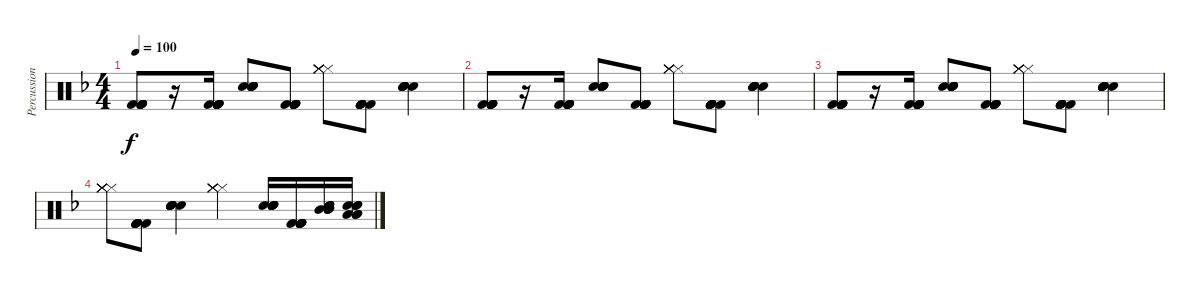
\track ("Percussion" "Percussion") {instrument percussion}
\staff {score}
\articulation defaults
\ts (4 4)
\tempo 100
\clef neutral
\ks dminor
("Kick (hit) 2" "Kick (hit) 2" "Kick (hit) 2" "Kick (hit) 2" "Kick (hit) 2" "Kick (hit) 2").8{dy f} r.16 ("Kick (hit) 2" "Kick (hit) 2" "Kick (hit) 2" "Kick (hit) 2" "Kick (hit) 2" "Kick (hit) 2").16 ("Electric Snare (hit)" "Electric Snare (hit)" "Electric Snare (hit)" "Electric Snare (hit)" "Electric Snare (hit)" "Electric Snare (hit)").8 ("Kick (hit) 2" "Kick (hit) 2" "Kick (hit) 2" "Kick (hit) 2" "Kick (hit) 2" "Kick (hit) 2").8 ("Hi-Hat (closed)" "Hi-Hat (closed)" "Hi-Hat (closed)" "Hi-Hat (closed)" "Hi-Hat (closed)" "Hi-Hat (closed)").8 ("Kick (hit) 2" "Kick (hit) 2" "Kick (hit) 2" "Kick (hit) 2" "Kick (hit) 2" "Kick (hit) 2").8 ("Electric Snare (hit)" "Electric Snare (hit)" "Electric Snare (hit)" "Electric Snare (hit)" "Electric Snare (hit)" "Electric Snare (hit)").4 |
("Kick (hit) 2" "Kick (hit) 2" "Kick (hit) 2" "Kick (hit) 2" "Kick (hit) 2" "Kick (hit) 2").8 r.16 ("Kick (hit) 2" "Kick (hit) 2" "Kick (hit) 2" "Kick (hit) 2" "Kick (hit) 2" "Kick (hit) 2").16 ("Electric Snare (hit)" "Electric Snare (hit)" "Electric Snare (hit)" "Electric Snare (hit)" "Electric Snare (hit)" "Electric Snare (hit)").8 ("Kick (hit) 2" "Kick (hit) 2" "Kick (hit) 2" "Kick (hit) 2" "Kick (hit) 2" "Kick (hit) 2").8 ("Hi-Hat (closed)" "Hi-Hat (closed)" "Hi-Hat (closed)" "Hi-Hat (closed)" "Hi-Hat (closed)" "Hi-Hat (closed)").8 ("Kick (hit) 2" "Kick (hit) 2" "Kick (hit) 2" "Kick (hit) 2" "Kick (hit) 2" "Kick (hit) 2").8 ("Electric Snare (hit)" "Electric Snare (hit)" "Electric Snare (hit)" "Electric Snare (hit)" "Electric Snare (hit)" "Electric Snare (hit)").4 |
("Kick (hit) 2" "Kick (hit) 2" "Kick (hit) 2" "Kick (hit) 2" "Kick (hit) 2" "Kick (hit) 2").8 r.16 ("Kick (hit) 2" "Kick (hit) 2" "Kick (hit) 2" "Kick (hit) 2" "Kick (hit) 2" "Kick (hit) 2").16 ("Electric Snare (hit)" "Electric Snare (hit)" "Electric Snare (hit)" "Electric Snare (hit)" "Electric Snare (hit)" "Electric Snare (hit)").8 ("Kick (hit) 2" "Kick (hit) 2" "Kick (hit) 2" "Kick (hit) 2" "Kick (hit) 2" "Kick (hit) 2").8 ("Hi-Hat (closed)" "Hi-Hat (closed)" "Hi-Hat (closed)" "Hi-Hat (closed)" "Hi-Hat (closed)" "Hi-Hat (closed)").8 ("Kick (hit) 2" "Kick (hit) 2" "Kick (hit) 2" "Kick (hit) 2" "Kick (hit) 2" "Kick (hit) 2").8 ("Electric Snare (hit)" "Electric Snare (hit)" "Electric Snare (hit)" "Electric Snare (hit)" "Electric Snare (hit)" "Electric Snare (hit)").4 |
("Hi-Hat (closed)" "Hi-Hat (closed)" "Hi-Hat (closed)" "Hi-Hat (closed)" "Hi-Hat (closed)" "Hi-Hat (closed)").8 ("Kick (hit) 2" "Kick (hit) 2" "Kick (hit) 2" "Kick (hit) 2" "Kick (hit) 2" "Kick (hit) 2").8 ("Electric Snare (hit)" "Electric Snare (hit)" "Electric Snare (hit)" "Electric Snare (hit)" "Electric Snare (hit)" "Electric Snare (hit)").4 ("Hi-Hat (closed)" "Hi-Hat (closed)" "Hi-Hat (closed)" "Hi-Hat (closed)" "Hi-Hat (closed)" "Hi-Hat (closed)").4 ("Electric Snare (hit)" "Electric Snare (hit)" "Electric Snare (hit)" "Electric Snare (hit)" "Electric Snare (hit)" "Electric Snare (hit)").16 ("Kick (hit) 2" "Kick (hit) 2" "Kick (hit) 2" "Kick (hit) 2" "Kick (hit) 2" "Kick (hit) 2").16 ("Mid Tom (hit)" "Electric Snare (hit)" "Mid Tom (hit)" "Electric Snare (hit)" "Mid Tom (hit)" "Electric Snare (hit)").16 ("Low Tom (hit)" "Electric Snare (hit)" "Low Tom (hit)" "Electric Snare (hit)" "Low Tom (hit)" "Electric Snare (hit)").16
